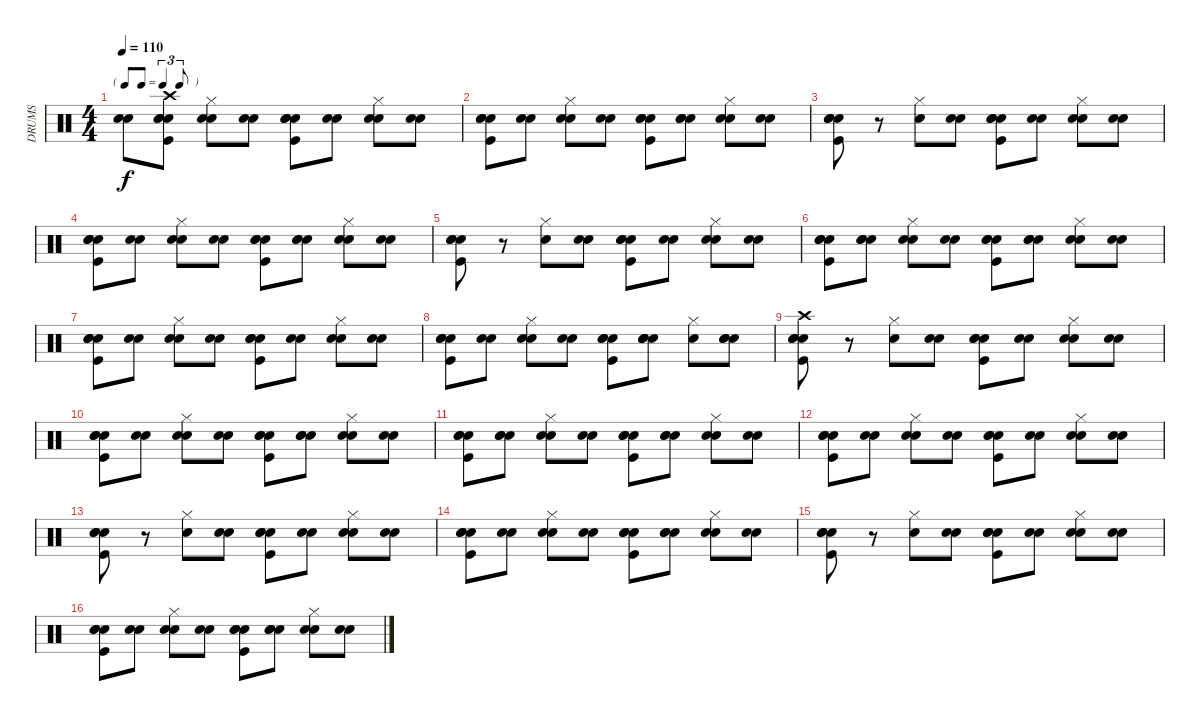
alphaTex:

\track ("DRUMS" "DRUMS") {instrument percussion}
\staff {score}
\articulation defaults
\ts (4 4)
\tf triplet8th
\tempo 110
\clef neutral
\ks c
("Snare (hit)" "Snare (hit) 2").8{dy f} ("Snare (hit)" "Kick (hit)" "Snare (hit) 2" "Electric Snare (hit)" "Crash high (hit)").8 ("Snare (hit)" "Snare (hit) 2" "Hi-Hat (closed)").8 ("Snare (hit)" "Snare (hit) 2").8 ("Snare (hit)" "Kick (hit)" "Snare (hit) 2" "Electric Snare (hit)").8 ("Snare (hit)" "Electric Snare (hit)").8 ("Snare (hit)" "Snare (hit) 2" "Hi-Hat (closed)").8 ("Snare (hit)" "Snare (hit) 2").8 |
("Snare (hit)" "Kick (hit)" "Snare (hit) 2" "Electric Snare (hit)").8 ("Snare (hit)" "Electric Snare (hit)").8 ("Snare (hit)" "Snare (hit) 2" "Hi-Hat (closed)").8 ("Snare (hit)" "Snare (hit) 2").8 ("Snare (hit)" "Kick (hit)" "Snare (hit) 2" "Electric Snare (hit)").8 ("Snare (hit)" "Snare (hit) 2" "Electric Snare (hit)").8 ("Snare (hit)" "Snare (hit) 2" "Hi-Hat (closed)").8 ("Snare (hit)" "Snare (hit) 2").8 |
("Snare (hit)" "Kick (hit)" "Snare (hit) 2" "Electric Snare (hit)").8 r.8 ("Snare (hit) 2" "Hi-Hat (closed)").8 ("Snare (hit)" "Snare (hit) 2").8 ("Snare (hit)" "Kick (hit)" "Snare (hit) 2" "Electric Snare (hit)").8 ("Snare (hit)" "Electric Snare (hit)").8 ("Snare (hit)" "Snare (hit) 2" "Hi-Hat (closed)").8 ("Snare (hit)" "Snare (hit) 2").8 |
("Snare (hit)" "Kick (hit)" "Snare (hit) 2" "Electric Snare (hit)").8 ("Snare (hit)" "Electric Snare (hit)").8 ("Snare (hit)" "Snare (hit) 2" "Hi-Hat (closed)").8 ("Snare (hit)" "Snare (hit) 2").8 ("Snare (hit)" "Kick (hit)" "Snare (hit) 2" "Electric Snare (hit)").8 ("Snare (hit)" "Snare (hit) 2" "Electric Snare (hit)").8 ("Snare (hit)" "Snare (hit) 2" "Hi-Hat (closed)").8 ("Snare (hit)" "Snare (hit) 2").8 |
("Snare (hit)" "Kick (hit)" "Snare (hit) 2" "Electric Snare (hit)").8 r.8 ("Snare (hit) 2" "Hi-Hat (closed)").8 ("Snare (hit)" "Snare (hit) 2").8 ("Snare (hit)" "Kick (hit)" "Snare (hit) 2" "Electric Snare (hit)").8 ("Snare (hit)" "Electric Snare (hit)").8 ("Snare (hit)" "Snare (hit) 2" "Hi-Hat (closed)").8 ("Snare (hit)" "Snare (hit) 2").8 |
("Snare (hit)" "Kick (hit)" "Snare (hit) 2" "Electric Snare (hit)").8 ("Snare (hit)" "Snare (hit) 2" "Electric Snare (hit)").8 ("Snare (hit)" "Snare (hit) 2" "Hi-Hat (closed)").8 ("Snare (hit)" "Snare (hit) 2").8 ("Snare (hit)" "Kick (hit)" "Snare (hit) 2" "Electric Snare (hit)").8 ("Snare (hit)" "Snare (hit) 2" "Electric Snare (hit)").8 ("Snare (hit)" "Snare (hit) 2" "Hi-Hat (closed)").8 ("Snare (hit)" "Snare (hit) 2").8 |
("Snare (hit)" "Kick (hit)" "Snare (hit) 2" "Electric Snare (hit)").8 ("Snare (hit)" "Electric Snare (hit)").8 ("Snare (hit)" "Snare (hit) 2" "Hi-Hat (closed)").8 ("Snare (hit)" "Snare (hit) 2").8 ("Snare (hit)" "Kick (hit)" "Snare (hit) 2" "Electric Snare (hit)").8 ("Snare (hit)" "Electric Snare (hit)").8 ("Snare (hit)" "Snare (hit) 2" "Hi-Hat (closed)").8 ("Snare (hit)" "Snare (hit) 2").8 |
("Snare (hit)" "Kick (hit)" "Snare (hit) 2" "Electric Snare (hit)").8 ("Snare (hit)" "Electric Snare (hit)").8 ("Snare (hit)" "Snare (hit) 2" "Hi-Hat (closed)").8 ("Snare (hit)" "Snare (hit) 2").8 ("Snare (hit)" "Kick (hit)" "Snare (hit) 2" "Electric Snare (hit)").8 ("Snare (hit)" "Snare (hit) 2" "Electric Snare (hit)" "Hand Clap (hit)").8 ("Snare (hit)" "Hi-Hat (closed)").8 ("Snare (hit)" "Snare (hit) 2" "Hand Clap (hit)").8 |
("Snare (hit)" "Kick (hit)" "Snare (hit) 2" "Electric Snare (hit)" "Crash high (hit)").8 r.8 ("Snare (hit) 2" "Hi-Hat (closed)").8 ("Snare (hit)" "Snare (hit) 2").8 ("Snare (hit)" "Kick (hit)" "Snare (hit) 2" "Electric Snare (hit)").8 ("Snare (hit)" "Electric Snare (hit)").8 ("Snare (hit)" "Snare (hit) 2" "Hi-Hat (closed)").8 ("Snare (hit)" "Snare (hit) 2").8 |
("Snare (hit)" "Kick (hit)" "Snare (hit) 2" "Electric Snare (hit)").8 ("Snare (hit)" "Electric Snare (hit)").8 ("Snare (hit)" "Snare (hit) 2" "Hi-Hat (closed)").8 ("Snare (hit)" "Snare (hit) 2").8 ("Snare (hit)" "Kick (hit)" "Snare (hit) 2" "Electric Snare (hit)").8 ("Snare (hit)" "Snare (hit) 2" "Electric Snare (hit)").8 ("Snare (hit)" "Snare (hit) 2" "Hi-Hat (closed)").8 ("Snare (hit)" "Snare (hit) 2").8 |
("Snare (hit)" "Kick (hit)" "Snare (hit) 2" "Electric Snare (hit)").8 ("Snare (hit)" "Snare (hit) 2" "Electric Snare (hit)").8 ("Snare (hit)" "Snare (hit) 2" "Hi-Hat (closed)").8 ("Snare (hit)" "Snare (hit) 2").8 ("Snare (hit)" "Kick (hit)" "Snare (hit) 2" "Electric Snare (hit)").8 ("Snare (hit)" "Snare (hit) 2" "Electric Snare (hit)").8 ("Snare (hit)" "Snare (hit) 2" "Hi-Hat (closed)").8 ("Snare (hit)" "Snare (hit) 2").8 |
("Snare (hit)" "Kick (hit)" "Snare (hit) 2" "Electric Snare (hit)").8 ("Snare (hit)" "Electric Snare (hit)").8 ("Snare (hit)" "Snare (hit) 2" "Hi-Hat (closed)").8 ("Snare (hit)" "Snare (hit) 2").8 ("Snare (hit)" "Kick (hit)" "Snare (hit) 2" "Electric Snare (hit)").8 ("Snare (hit)" "Electric Snare (hit)").8 ("Snare (hit)" "Snare (hit) 2" "Hi-Hat (closed)").8 ("Snare (hit)" "Snare (hit) 2").8 |
("Snare (hit)" "Kick (hit)" "Snare (hit) 2" "Electric Snare (hit)").8 r.8 ("Snare (hit) 2" "Hi-Hat (closed)").8 ("Snare (hit)" "Snare (hit) 2").8 ("Snare (hit)" "Kick (hit)" "Snare (hit) 2" "Electric Snare (hit)").8 ("Snare (hit)" "Electric Snare (hit)").8 ("Snare (hit)" "Snare (hit) 2" "Hi-Hat (closed)").8 ("Snare (hit)" "Snare (hit) 2").8 |
("Snare (hit)" "Kick (hit)" "Snare (hit) 2" "Electric Snare (hit)").8 ("Snare (hit)" "Electric Snare (hit)").8 ("Snare (hit)" "Snare (hit) 2" "Hi-Hat (closed)").8 ("Snare (hit)" "Snare (hit) 2").8 ("Snare (hit)" "Kick (hit)" "Snare (hit) 2" "Electric Snare (hit)").8 ("Snare (hit)" "Snare (hit) 2" "Electric Snare (hit)").8 ("Snare (hit)" "Snare (hit) 2" "Hi-Hat (closed)").8 ("Snare (hit)" "Snare (hit) 2").8 |
("Snare (hit)" "Kick (hit)" "Snare (hit) 2" "Electric Snare (hit)").8 r.8 ("Snare (hit) 2" "Hi-Hat (closed)").8 ("Snare (hit)" "Snare (hit) 2").8 ("Snare (hit)" "Kick (hit)" "Snare (hit) 2" "Electric Snare (hit)").8 ("Snare (hit)" "Electric Snare (hit)").8 ("Snare (hit)" "Snare (hit) 2" "Hi-Hat (closed)").8 ("Snare (hit)" "Snare (hit) 2").8 |
("Snare (hit)" "Kick (hit)" "Snare (hit) 2" "Electric Snare (hit)").8 ("Snare (hit)" "Electric Snare (hit)").8 ("Snare (hit)" "Snare (hit) 2" "Hi-Hat (closed)").8 ("Snare (hit)" "Snare (hit) 2").8 ("Snare (hit)" "Kick (hit)" "Snare (hit) 2" "Electric Snare (hit)").8 ("Snare (hit)" "Snare (hit) 2" "Electric Snare (hit)").8 ("Snare (hit)" "Snare (hit) 2" "Hi-Hat (closed)").8 ("Snare (hit)" "Snare (hit) 2").8
